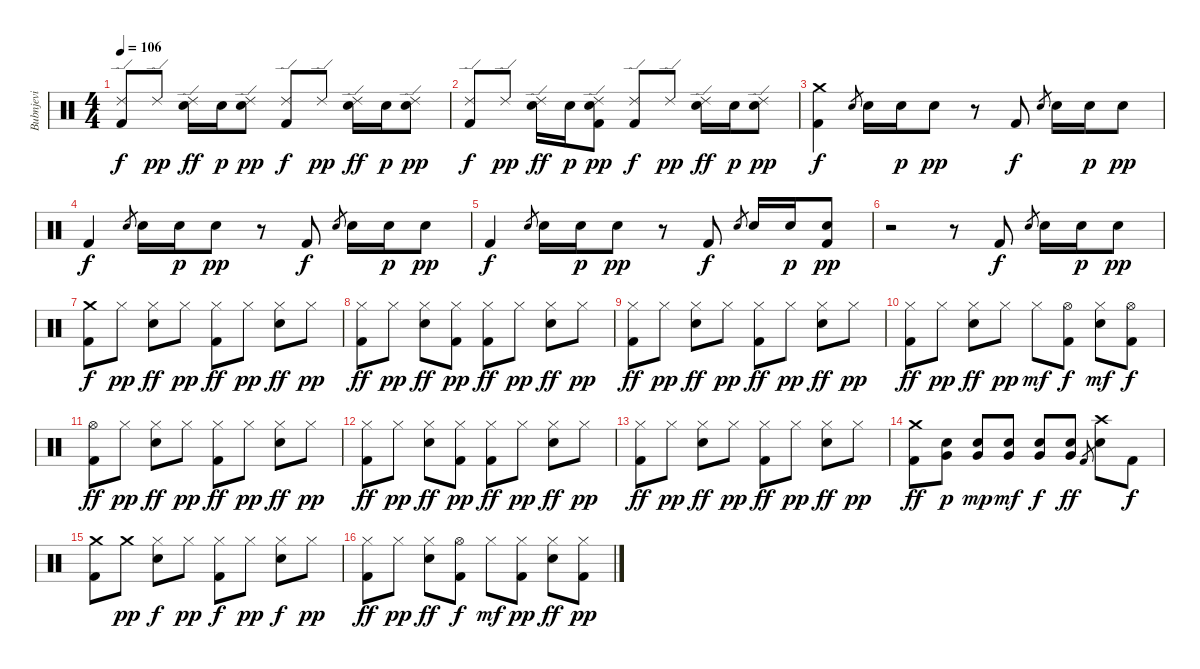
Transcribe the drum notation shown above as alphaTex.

\track ("Bubnjevi" "Bubnjevi") {instrument percussion}
\staff {score}
\articulation defaults
\ts (4 4)
\tempo 106
\clef neutral
\ks c
("Ride (edge) 2" "Kick (hit) 2").8{dy f} "Ride (edge) 2".8{dy pp} ("Ride (edge) 2" "Electric Snare (hit)").16{dy ff} "Electric Snare (hit)".16{dy p} ("Ride (edge) 2" "Electric Snare (hit)").8{dy pp} ("Ride (edge) 2" "Kick (hit) 2").8{dy f} "Ride (edge) 2".8{dy pp} ("Ride (edge) 2" "Electric Snare (hit)").16{dy ff} "Electric Snare (hit)".16{dy p} ("Ride (edge) 2" "Electric Snare (hit)").8{dy pp} |
("Ride (edge) 2" "Kick (hit) 2").8{dy f} "Ride (edge) 2".8{dy pp} ("Ride (edge) 2" "Electric Snare (hit)").16{dy ff} "Electric Snare (hit)".16{dy p} ("Ride (edge) 2" "Electric Snare (hit)" "Kick (hit) 2").8{dy pp} ("Ride (edge) 2" "Kick (hit) 2").8{dy f} "Ride (edge) 2".8{dy pp} ("Ride (edge) 2" "Electric Snare (hit)").16{dy ff} "Electric Snare (hit)".16{dy p} ("Ride (edge) 2" "Electric Snare (hit)").8{dy pp} |
("Crash medium (hit)" "Kick (hit) 2").4{dy f} "Electric Snare (hit)".8{gr} "Electric Snare (hit)".16 "Electric Snare (hit)".16{dy p} "Electric Snare (hit)".8{dy pp} r.8 "Kick (hit) 2".8{dy f} "Electric Snare (hit)".8{gr} "Electric Snare (hit)".16 "Electric Snare (hit)".16{dy p} "Electric Snare (hit)".8{dy pp} |
"Kick (hit) 2".4{dy f} "Electric Snare (hit)".8{gr} "Electric Snare (hit)".16 "Electric Snare (hit)".16{dy p} "Electric Snare (hit)".8{dy pp} r.8 "Kick (hit) 2".8{dy f} "Electric Snare (hit)".8{gr} "Electric Snare (hit)".16 "Electric Snare (hit)".16{dy p} "Electric Snare (hit)".8{dy pp} |
"Kick (hit) 2".4{dy f} "Electric Snare (hit)".8{gr} "Electric Snare (hit)".16 "Electric Snare (hit)".16{dy p} "Electric Snare (hit)".8{dy pp} r.8 "Kick (hit) 2".8{dy f} "Electric Snare (hit)".8{gr} "Electric Snare (hit)".16 "Electric Snare (hit)".16{dy p} ("Electric Snare (hit)" "Kick (hit) 2").8{dy pp} |
r.2 r.8 "Kick (hit) 2".8{dy f} "Electric Snare (hit)".8{gr} "Electric Snare (hit)".16 "Electric Snare (hit)".16{dy p} "Electric Snare (hit)".8{dy pp} |
("Crash medium (hit)" "Kick (hit) 2").8{dy f} "Hi-Hat (closed)".8{dy pp} ("Hi-Hat (closed)" "Electric Snare (hit)").8{dy ff} "Hi-Hat (closed)".8{dy pp} ("Hi-Hat (closed)" "Kick (hit) 2").8{dy ff} "Hi-Hat (closed)".8{dy pp} ("Hi-Hat (closed)" "Electric Snare (hit)").8{dy ff} "Hi-Hat (closed)".8{dy pp} |
("Hi-Hat (closed)" "Kick (hit) 2").8{dy ff} "Hi-Hat (closed)".8{dy pp} ("Hi-Hat (closed)" "Electric Snare (hit)").8{dy ff} ("Hi-Hat (closed)" "Kick (hit) 2").8{dy pp} ("Hi-Hat (closed)" "Kick (hit) 2").8{dy ff} "Hi-Hat (closed)".8{dy pp} ("Hi-Hat (closed)" "Electric Snare (hit)").8{dy ff} "Hi-Hat (closed)".8{dy pp} |
("Hi-Hat (closed)" "Kick (hit) 2").8{dy ff} "Hi-Hat (closed)".8{dy pp} ("Hi-Hat (closed)" "Electric Snare (hit)").8{dy ff} "Hi-Hat (closed)".8{dy pp} ("Hi-Hat (closed)" "Kick (hit) 2").8{dy ff} "Hi-Hat (closed)".8{dy pp} ("Hi-Hat (closed)" "Electric Snare (hit)").8{dy ff} "Hi-Hat (closed)".8{dy pp} |
("Hi-Hat (closed)" "Kick (hit) 2").8{dy ff} "Hi-Hat (closed)".8{dy pp} ("Hi-Hat (closed)" "Electric Snare (hit)").8{dy ff} "Hi-Hat (closed)".8{dy pp} "Hi-Hat (closed)".8{dy mf} ("Hi-Hat (open)" "Kick (hit) 2").8{dy f} ("Hi-Hat (closed)" "Electric Snare (hit)").8{dy mf} ("Hi-Hat (open)" "Kick (hit) 2").8{dy f} |
("Hi-Hat (open)" "Kick (hit) 2").8{dy ff} "Hi-Hat (closed)".8{dy pp} ("Hi-Hat (closed)" "Electric Snare (hit)").8{dy ff} "Hi-Hat (closed)".8{dy pp} ("Hi-Hat (closed)" "Kick (hit) 2").8{dy ff} "Hi-Hat (closed)".8{dy pp} ("Hi-Hat (closed)" "Electric Snare (hit)").8{dy ff} "Hi-Hat (closed)".8{dy pp} |
("Hi-Hat (closed)" "Kick (hit) 2").8{dy ff} "Hi-Hat (closed)".8{dy pp} ("Hi-Hat (closed)" "Electric Snare (hit)").8{dy ff} ("Hi-Hat (closed)" "Kick (hit) 2").8{dy pp} ("Hi-Hat (closed)" "Kick (hit) 2").8{dy ff} "Hi-Hat (closed)".8{dy pp} ("Hi-Hat (closed)" "Electric Snare (hit)").8{dy ff} "Hi-Hat (closed)".8{dy pp} |
("Hi-Hat (closed)" "Kick (hit) 2").8{dy ff} "Hi-Hat (closed)".8{dy pp} ("Hi-Hat (closed)" "Electric Snare (hit)").8{dy ff} "Hi-Hat (closed)".8{dy pp} ("Hi-Hat (closed)" "Kick (hit) 2").8{dy ff} "Hi-Hat (closed)".8{dy pp} ("Hi-Hat (closed)" "Electric Snare (hit)").8{dy ff} "Hi-Hat (closed)".8{dy pp} |
("Crash medium (hit)" "Kick (hit) 2").8{dy ff} ("Electric Snare (hit)" "Very Low Tom (hit)").8{dy p} ("Electric Snare (hit)" "Very Low Tom (hit)").8{dy mp} ("Electric Snare (hit)" "Very Low Tom (hit)").8{dy mf} ("Electric Snare (hit)" "Very Low Tom (hit)").8{dy f} ("Electric Snare (hit)" "Very Low Tom (hit)").8{dy ff} "Kick (hit) 2".8{gr} ("Crash high (hit)" "Electric Snare (hit)").8 "Kick (hit) 2".8{dy f} |
("Crash medium (hit)" "Kick (hit) 2").8 "Crash medium (hit)".8{dy pp} ("Hi-Hat (closed)" "Electric Snare (hit)").8{dy f} "Hi-Hat (closed)".8{dy pp} ("Hi-Hat (closed)" "Kick (hit) 2").8{dy f} "Hi-Hat (closed)".8{dy pp} ("Hi-Hat (closed)" "Electric Snare (hit)").8{dy f} "Hi-Hat (closed)".8{dy pp} |
("Hi-Hat (closed)" "Kick (hit) 2").8{dy ff} "Hi-Hat (closed)".8{dy pp} ("Hi-Hat (closed)" "Electric Snare (hit)").8{dy ff} ("Hi-Hat (open)" "Kick (hit) 2").8{dy f} "Hi-Hat (closed)".8{dy mf} ("Hi-Hat (closed)" "Kick (hit) 2").8{dy pp} ("Hi-Hat (closed)" "Electric Snare (hit)").8{dy ff} ("Hi-Hat (closed)" "Kick (hit) 2").8{dy pp}
